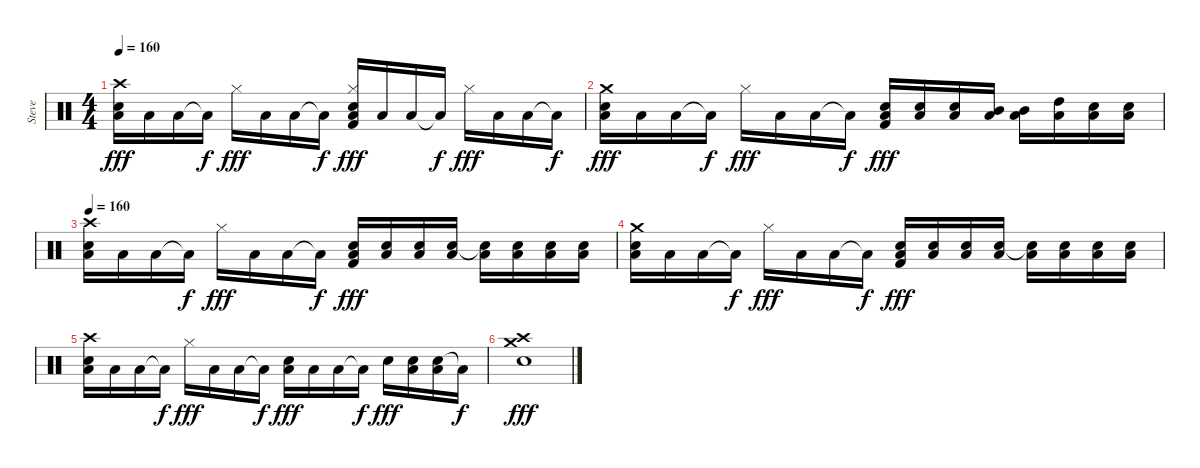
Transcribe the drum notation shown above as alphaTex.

\track ("Steve" "Steve") {instrument percussion}
\staff {score}
\articulation defaults
\ts (4 4)
\tempo 160
\clef neutral
\ks c
("Crash high (hit)" "Electric Snare (hit)" "Low Floor Tom (hit)").16{dy fff} "Low Floor Tom (hit)".16 "Low Floor Tom (hit)".16 "Low Floor Tom (hit)"{t}.16{dy f} "Hi-Hat (closed)".16{dy fff} "Low Floor Tom (hit)".16 "Low Floor Tom (hit)".16 "Low Floor Tom (hit)"{t}.16{dy f} ("Electric Snare (hit)" "Kick (hit) 2" "Hi-Hat (closed)" "Low Floor Tom (hit)").16{dy fff} "Low Floor Tom (hit)".16 "Low Floor Tom (hit)".16 "Low Floor Tom (hit)"{t}.16{dy f} "Hi-Hat (closed)".16{dy fff} "Low Floor Tom (hit)".16 "Low Floor Tom (hit)".16 "Low Floor Tom (hit)"{t}.16{dy f} |
("Crash medium (hit)" "Electric Snare (hit)" "Low Floor Tom (hit)").16{dy fff} "Low Floor Tom (hit)".16 "Low Floor Tom (hit)".16 "Low Floor Tom (hit)"{t}.16{dy f} "Hi-Hat (closed)".16{dy fff} "Low Floor Tom (hit)".16 "Low Floor Tom (hit)".16 "Low Floor Tom (hit)"{t}.16{dy f} ("Electric Snare (hit)" "Kick (hit) 2" "Low Floor Tom (hit)").16{dy fff} ("Electric Snare (hit)" "Low Floor Tom (hit)").16 ("Electric Snare (hit)" "Low Floor Tom (hit)").16 ("Mid Tom (hit)" "Low Floor Tom (hit)").16 ("Mid Tom (hit)" "Low Floor Tom (hit)").16 ("High Tom (hit)" "Low Floor Tom (hit)").16 ("Electric Snare (hit)" "Low Floor Tom (hit)").16 ("Electric Snare (hit)" "Low Floor Tom (hit)").16 |
\tempo 160
("Crash high (hit)" "Electric Snare (hit)" "Low Floor Tom (hit)").16 "Low Floor Tom (hit)".16 "Low Floor Tom (hit)".16 "Low Floor Tom (hit)"{t}.16{dy f} "Hi-Hat (closed)".16{dy fff} "Low Floor Tom (hit)".16 "Low Floor Tom (hit)".16 "Low Floor Tom (hit)"{t}.16{dy f} ("Electric Snare (hit)" "Kick (hit) 2" "Low Floor Tom (hit)").16{dy fff} ("Electric Snare (hit)" "Low Floor Tom (hit)").16 ("Electric Snare (hit)" "Low Floor Tom (hit)").16 ("Electric Snare (hit)" "Low Floor Tom (hit)").16 ("Electric Snare (hit)"{t} "Low Floor Tom (hit)").16 ("Electric Snare (hit)" "Low Floor Tom (hit)").16 ("Electric Snare (hit)" "Low Floor Tom (hit)").16 ("Electric Snare (hit)" "Low Floor Tom (hit)").16 |
("Crash medium (hit)" "Electric Snare (hit)" "Low Floor Tom (hit)").16 "Low Floor Tom (hit)".16 "Low Floor Tom (hit)".16 "Low Floor Tom (hit)"{t}.16{dy f} "Hi-Hat (closed)".16{dy fff} "Low Floor Tom (hit)".16 "Low Floor Tom (hit)".16 "Low Floor Tom (hit)"{t}.16{dy f} ("Electric Snare (hit)" "Kick (hit) 2" "Low Floor Tom (hit)").16{dy fff} ("Electric Snare (hit)" "Low Floor Tom (hit)").16 ("Electric Snare (hit)" "Low Floor Tom (hit)").16 ("Electric Snare (hit)" "Low Floor Tom (hit)").16 ("Electric Snare (hit)"{t} "Low Floor Tom (hit)").16 ("Electric Snare (hit)" "Low Floor Tom (hit)").16 ("Electric Snare (hit)" "Low Floor Tom (hit)").16 ("Electric Snare (hit)" "Low Floor Tom (hit)").16 |
("Crash high (hit)" "Electric Snare (hit)" "Low Floor Tom (hit)").16 "Low Floor Tom (hit)".16 "Low Floor Tom (hit)".16 "Low Floor Tom (hit)"{t}.16{dy f} "Hi-Hat (closed)".16{dy fff} "Low Floor Tom (hit)".16 "Low Floor Tom (hit)".16 "Low Floor Tom (hit)"{t}.16{dy f} ("Electric Snare (hit)" "Low Floor Tom (hit)").16{dy fff} "Low Floor Tom (hit)".16 "Low Floor Tom (hit)".16 "Low Floor Tom (hit)"{t}.16{dy f} "Electric Snare (hit)".16{dy fff} ("Electric Snare (hit)" "Low Floor Tom (hit)").16 ("Electric Snare (hit)" "Low Floor Tom (hit)").16 "Low Floor Tom (hit)"{t}.16{dy f} |
("Crash medium (hit)" "Electric Snare (hit)" "Crash high (hit)").1{dy fff}
